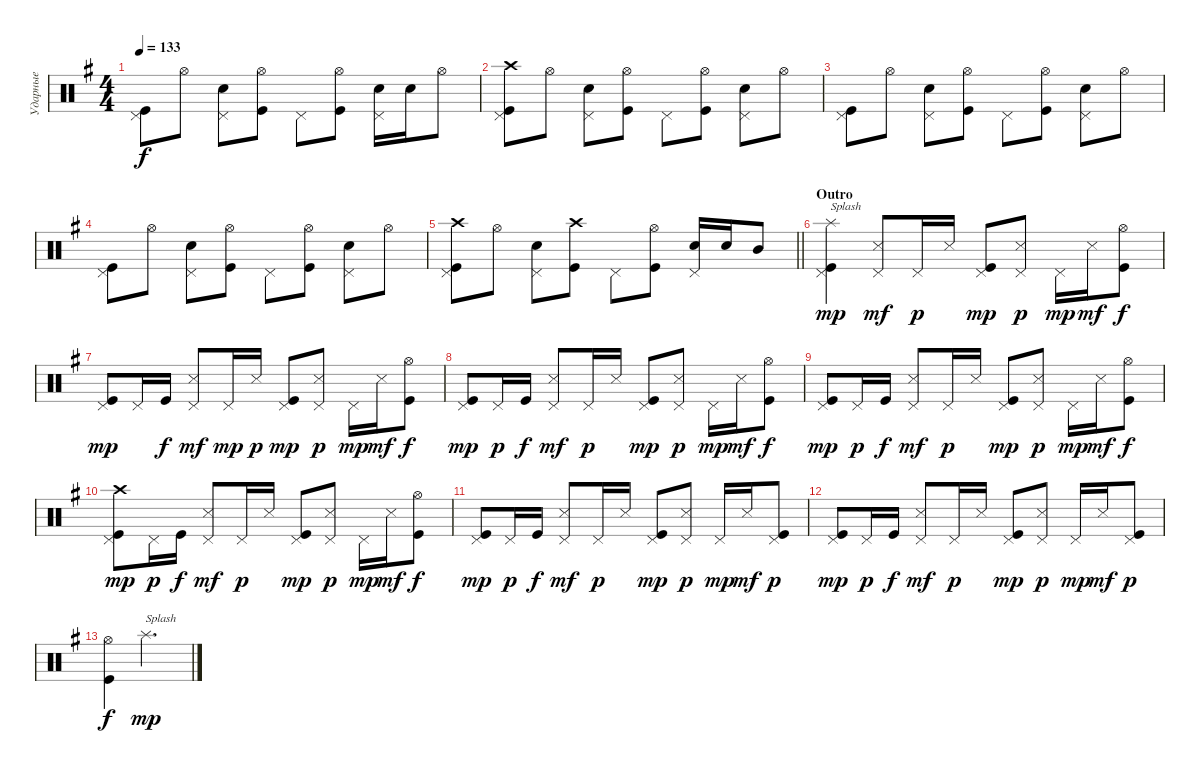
\track ("Ударные" "Ударные") {instrument percussion}
\staff {score}
\articulation defaults
\ts (4 4)
\tempo 133
\clef neutral
\ks eminor
("Pedal Hi-Hat (hit)" "Kick (hit)").8{dy f} "Hi-Hat (open)".8 ("Pedal Hi-Hat (hit)" "Snare (hit) 2").8 ("Hi-Hat (open)" "Kick (hit)").8 "Pedal Hi-Hat (hit)".8 ("Hi-Hat (open)" "Kick (hit)").8 ("Pedal Hi-Hat (hit)" "Snare (hit) 2").16 "Snare (hit) 2".16 "Hi-Hat (open)".8 |
("Pedal Hi-Hat (hit)" "Kick (hit)" "Crash high (hit)").8 "Hi-Hat (open)".8 ("Pedal Hi-Hat (hit)" "Snare (hit) 2").8 ("Hi-Hat (open)" "Kick (hit)").8 "Pedal Hi-Hat (hit)".8 ("Hi-Hat (open)" "Kick (hit)").8 ("Pedal Hi-Hat (hit)" "Snare (hit) 2").8 "Hi-Hat (open)".8 |
("Pedal Hi-Hat (hit)" "Kick (hit)").8 "Hi-Hat (open)".8 ("Pedal Hi-Hat (hit)" "Snare (hit) 2").8 ("Hi-Hat (open)" "Kick (hit)").8 "Pedal Hi-Hat (hit)".8 ("Hi-Hat (open)" "Kick (hit)").8 ("Pedal Hi-Hat (hit)" "Snare (hit) 2").8 "Hi-Hat (open)".8 |
("Pedal Hi-Hat (hit)" "Kick (hit)").8 "Hi-Hat (open)".8 ("Pedal Hi-Hat (hit)" "Snare (hit) 2").8 ("Hi-Hat (open)" "Kick (hit)").8 "Pedal Hi-Hat (hit)".8 ("Hi-Hat (open)" "Kick (hit)").8 ("Pedal Hi-Hat (hit)" "Snare (hit) 2").8 "Hi-Hat (open)".8 |
\barLineRight lightlight
("Pedal Hi-Hat (hit)" "Kick (hit)" "Crash high (hit)").8 "Hi-Hat (open)".8 ("Pedal Hi-Hat (hit)" "Snare (hit) 2").8 ("Crash high (hit)" "Kick (hit)").8 "Pedal Hi-Hat (hit)".8 ("Hi-Hat (open)" "Kick (hit)").8 ("Pedal Hi-Hat (hit)" "Snare (hit) 2").16 "Snare (hit) 2".16 "Mid Tom (hit)".8 |
\section ("" "Outro")
("Pedal Hi-Hat (hit)" "Splash (hit)" "Kick (hit)").4{txt "Splash" dy mp} ("Pedal Hi-Hat (hit)" "Snare (side stick) 3").8{dy mf} "Pedal Hi-Hat (hit)".16{dy p} "Snare (side stick) 3".16 ("Kick (hit)" "Pedal Hi-Hat (hit)").8{dy mp} ("Snare (side stick) 3" "Pedal Hi-Hat (hit)").8{dy p} "Pedal Hi-Hat (hit)".16{dy mp} "Snare (side stick) 3".16{dy mf} ("Kick (hit)" "Hi-Hat (open)").8{dy f} |
("Kick (hit)" "Pedal Hi-Hat (hit)").8{dy mp} "Pedal Hi-Hat (hit)".16 "Kick (hit)".16{dy f} ("Pedal Hi-Hat (hit)" "Snare (side stick) 3").8{dy mf} "Pedal Hi-Hat (hit)".16{dy mp} "Snare (side stick) 3".16{dy p} ("Kick (hit)" "Pedal Hi-Hat (hit)").8{dy mp} ("Snare (side stick) 3" "Pedal Hi-Hat (hit)").8{dy p} "Pedal Hi-Hat (hit)".16{dy mp} "Snare (side stick) 3".16{dy mf} ("Kick (hit)" "Hi-Hat (open)").8{dy f} |
("Kick (hit)" "Pedal Hi-Hat (hit)").8{dy mp} "Pedal Hi-Hat (hit)".16{dy p} "Kick (hit)".16{dy f} ("Pedal Hi-Hat (hit)" "Snare (side stick) 3").8{dy mf} "Pedal Hi-Hat (hit)".16{dy p} "Snare (side stick) 3".16 ("Kick (hit)" "Pedal Hi-Hat (hit)").8{dy mp} ("Snare (side stick) 3" "Pedal Hi-Hat (hit)").8{dy p} "Pedal Hi-Hat (hit)".16{dy mp} "Snare (side stick) 3".16{dy mf} ("Kick (hit)" "Hi-Hat (open)").8{dy f} |
("Kick (hit)" "Pedal Hi-Hat (hit)").8{dy mp} "Pedal Hi-Hat (hit)".16{dy p} "Kick (hit)".16{dy f} ("Pedal Hi-Hat (hit)" "Snare (side stick) 3").8{dy mf} "Pedal Hi-Hat (hit)".16{dy p} "Snare (side stick) 3".16 ("Kick (hit)" "Pedal Hi-Hat (hit)").8{dy mp} ("Snare (side stick) 3" "Pedal Hi-Hat (hit)").8{dy p} "Pedal Hi-Hat (hit)".16{dy mp} "Snare (side stick) 3".16{dy mf} ("Kick (hit)" "Hi-Hat (open)").8{dy f} |
("Crash high (hit)" "Kick (hit)" "Pedal Hi-Hat (hit)").8{dy mp} "Pedal Hi-Hat (hit)".16{dy p} "Kick (hit)".16{dy f} ("Pedal Hi-Hat (hit)" "Snare (side stick) 3").8{dy mf} "Pedal Hi-Hat (hit)".16{dy p} "Snare (side stick) 3".16 ("Kick (hit)" "Pedal Hi-Hat (hit)").8{dy mp} ("Snare (side stick) 3" "Pedal Hi-Hat (hit)").8{dy p} "Pedal Hi-Hat (hit)".16{dy mp} "Snare (side stick) 3".16{dy mf} ("Kick (hit)" "Hi-Hat (open)").8{dy f} |
("Kick (hit)" "Pedal Hi-Hat (hit)").8{dy mp} "Pedal Hi-Hat (hit)".16{dy p} "Kick (hit)".16{dy f} ("Pedal Hi-Hat (hit)" "Snare (side stick) 3").8{dy mf} "Pedal Hi-Hat (hit)".16{dy p} "Snare (side stick) 3".16 ("Kick (hit)" "Pedal Hi-Hat (hit)").8{dy mp} ("Snare (side stick) 3" "Pedal Hi-Hat (hit)").8{dy p} "Pedal Hi-Hat (hit)".16{dy mp} "Snare (side stick) 3".16{dy mf} ("Kick (hit)" "Pedal Hi-Hat (hit)").8{dy p} |
("Kick (hit)" "Pedal Hi-Hat (hit)").8{dy mp} "Pedal Hi-Hat (hit)".16{dy p} "Kick (hit)".16{dy f} ("Pedal Hi-Hat (hit)" "Snare (side stick) 3").8{dy mf} "Pedal Hi-Hat (hit)".16{dy p} "Snare (side stick) 3".16 ("Kick (hit)" "Pedal Hi-Hat (hit)").8{dy mp} ("Snare (side stick) 3" "Pedal Hi-Hat (hit)").8{dy p} "Pedal Hi-Hat (hit)".16{dy mp} "Snare (side stick) 3".16{dy mf} ("Kick (hit)" "Pedal Hi-Hat (hit)").8{dy p} |
("Kick (hit)" "Hi-Hat (open)").4{dy f} "Splash (hit)".2{d txt "Splash" dy mp}
